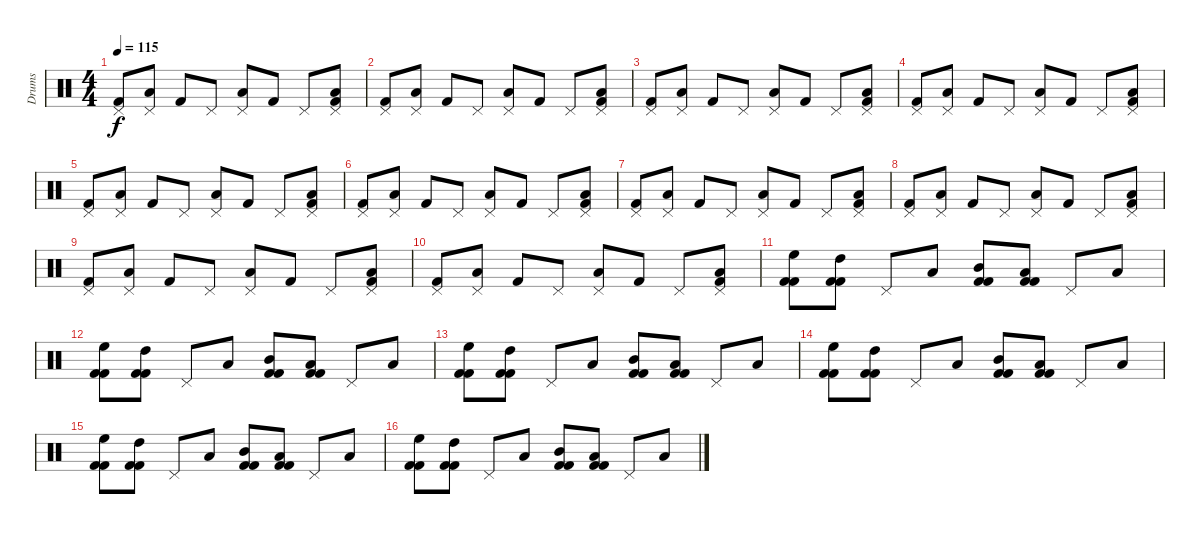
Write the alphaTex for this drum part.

\track ("Drums" "Drums") {instrument percussion}
\staff {score}
\articulation defaults
\ts (4 4)
\tempo 115
\clef neutral
\ks c
("Pedal Hi-Hat (hit)" "Kick (hit) 2").8{dy f} ("Pedal Hi-Hat (hit)" "Low Floor Tom (hit)").8 "Kick (hit) 2".8 "Pedal Hi-Hat (hit)".8 ("Pedal Hi-Hat (hit)" "Low Floor Tom (hit)").8 "Kick (hit) 2".8 "Pedal Hi-Hat (hit)".8 ("Pedal Hi-Hat (hit)" "Kick (hit) 2" "Low Floor Tom (hit)").8 |
("Pedal Hi-Hat (hit)" "Kick (hit) 2").8 ("Pedal Hi-Hat (hit)" "Low Floor Tom (hit)").8 "Kick (hit) 2".8 "Pedal Hi-Hat (hit)".8 ("Pedal Hi-Hat (hit)" "Low Floor Tom (hit)").8 "Kick (hit) 2".8 "Pedal Hi-Hat (hit)".8 ("Pedal Hi-Hat (hit)" "Kick (hit) 2" "Low Floor Tom (hit)").8 |
("Pedal Hi-Hat (hit)" "Kick (hit) 2").8 ("Pedal Hi-Hat (hit)" "Low Floor Tom (hit)").8 "Kick (hit) 2".8 "Pedal Hi-Hat (hit)".8 ("Pedal Hi-Hat (hit)" "Low Floor Tom (hit)").8 "Kick (hit) 2".8 "Pedal Hi-Hat (hit)".8 ("Pedal Hi-Hat (hit)" "Kick (hit) 2" "Low Floor Tom (hit)").8 |
("Pedal Hi-Hat (hit)" "Kick (hit) 2").8 ("Pedal Hi-Hat (hit)" "Low Floor Tom (hit)").8 "Kick (hit) 2".8 "Pedal Hi-Hat (hit)".8 ("Pedal Hi-Hat (hit)" "Low Floor Tom (hit)").8 "Kick (hit) 2".8 "Pedal Hi-Hat (hit)".8 ("Pedal Hi-Hat (hit)" "Kick (hit) 2" "Low Floor Tom (hit)").8 |
("Pedal Hi-Hat (hit)" "Kick (hit) 2").8 ("Pedal Hi-Hat (hit)" "Low Floor Tom (hit)").8 "Kick (hit) 2".8 "Pedal Hi-Hat (hit)".8 ("Pedal Hi-Hat (hit)" "Low Floor Tom (hit)").8 "Kick (hit) 2".8 "Pedal Hi-Hat (hit)".8 ("Pedal Hi-Hat (hit)" "Kick (hit) 2" "Low Floor Tom (hit)").8 |
("Pedal Hi-Hat (hit)" "Kick (hit) 2").8 ("Pedal Hi-Hat (hit)" "Low Floor Tom (hit)").8 "Kick (hit) 2".8 "Pedal Hi-Hat (hit)".8 ("Pedal Hi-Hat (hit)" "Low Floor Tom (hit)").8 "Kick (hit) 2".8 "Pedal Hi-Hat (hit)".8 ("Pedal Hi-Hat (hit)" "Kick (hit) 2" "Low Floor Tom (hit)").8 |
("Pedal Hi-Hat (hit)" "Kick (hit) 2").8 ("Pedal Hi-Hat (hit)" "Low Floor Tom (hit)").8 "Kick (hit) 2".8 "Pedal Hi-Hat (hit)".8 ("Pedal Hi-Hat (hit)" "Low Floor Tom (hit)").8 "Kick (hit) 2".8 "Pedal Hi-Hat (hit)".8 ("Pedal Hi-Hat (hit)" "Kick (hit) 2" "Low Floor Tom (hit)").8 |
("Pedal Hi-Hat (hit)" "Kick (hit) 2").8 ("Pedal Hi-Hat (hit)" "Low Floor Tom (hit)").8 "Kick (hit) 2".8 "Pedal Hi-Hat (hit)".8 ("Pedal Hi-Hat (hit)" "Low Floor Tom (hit)").8 "Kick (hit) 2".8 "Pedal Hi-Hat (hit)".8 ("Pedal Hi-Hat (hit)" "Kick (hit) 2" "Low Floor Tom (hit)").8 |
("Pedal Hi-Hat (hit)" "Kick (hit) 2").8 ("Pedal Hi-Hat (hit)" "Low Floor Tom (hit)").8 "Kick (hit) 2".8 "Pedal Hi-Hat (hit)".8 ("Pedal Hi-Hat (hit)" "Low Floor Tom (hit)").8 "Kick (hit) 2".8 "Pedal Hi-Hat (hit)".8 ("Pedal Hi-Hat (hit)" "Kick (hit) 2" "Low Floor Tom (hit)").8 |
("Pedal Hi-Hat (hit)" "Kick (hit) 2").8 ("Pedal Hi-Hat (hit)" "Low Floor Tom (hit)").8 "Kick (hit) 2".8 "Pedal Hi-Hat (hit)".8 ("Pedal Hi-Hat (hit)" "Low Floor Tom (hit)").8 "Kick (hit) 2".8 "Pedal Hi-Hat (hit)".8 ("Pedal Hi-Hat (hit)" "Kick (hit) 2" "Low Floor Tom (hit)").8 |
("High Floor Tom (hit)" "Kick (hit) 2" "Kick (hit) 2").8 ("High Tom (hit)" "Kick (hit) 2" "Kick (hit) 2").8 "Pedal Hi-Hat (hit)".8 "Low Tom (hit)".8 ("Mid Tom (hit)" "Kick (hit) 2" "Kick (hit) 2").8 ("Low Tom (hit)" "Kick (hit) 2" "Kick (hit) 2").8 "Pedal Hi-Hat (hit)".8 "Low Tom (hit)".8 |
("High Floor Tom (hit)" "Kick (hit) 2" "Kick (hit) 2").8 ("High Tom (hit)" "Kick (hit) 2" "Kick (hit) 2").8 "Pedal Hi-Hat (hit)".8 "Low Tom (hit)".8 ("Mid Tom (hit)" "Kick (hit) 2" "Kick (hit) 2").8 ("Low Tom (hit)" "Kick (hit) 2" "Kick (hit) 2").8 "Pedal Hi-Hat (hit)".8 "Low Tom (hit)".8 |
("High Floor Tom (hit)" "Kick (hit) 2" "Kick (hit) 2").8 ("High Tom (hit)" "Kick (hit) 2" "Kick (hit) 2").8 "Pedal Hi-Hat (hit)".8 "Low Tom (hit)".8 ("Mid Tom (hit)" "Kick (hit) 2" "Kick (hit) 2").8 ("Low Tom (hit)" "Kick (hit) 2" "Kick (hit) 2").8 "Pedal Hi-Hat (hit)".8 "Low Tom (hit)".8 |
("High Floor Tom (hit)" "Kick (hit) 2" "Kick (hit) 2").8 ("High Tom (hit)" "Kick (hit) 2" "Kick (hit) 2").8 "Pedal Hi-Hat (hit)".8 "Low Tom (hit)".8 ("Mid Tom (hit)" "Kick (hit) 2" "Kick (hit) 2").8 ("Low Tom (hit)" "Kick (hit) 2" "Kick (hit) 2").8 "Pedal Hi-Hat (hit)".8 "Low Tom (hit)".8 |
("High Floor Tom (hit)" "Kick (hit) 2" "Kick (hit) 2").8 ("High Tom (hit)" "Kick (hit) 2" "Kick (hit) 2").8 "Pedal Hi-Hat (hit)".8 "Low Tom (hit)".8 ("Mid Tom (hit)" "Kick (hit) 2" "Kick (hit) 2").8 ("Low Tom (hit)" "Kick (hit) 2" "Kick (hit) 2").8 "Pedal Hi-Hat (hit)".8 "Low Tom (hit)".8 |
("High Floor Tom (hit)" "Kick (hit) 2" "Kick (hit) 2").8 ("High Tom (hit)" "Kick (hit) 2" "Kick (hit) 2").8 "Pedal Hi-Hat (hit)".8 "Low Tom (hit)".8 ("Mid Tom (hit)" "Kick (hit) 2" "Kick (hit) 2").8 ("Low Tom (hit)" "Kick (hit) 2" "Kick (hit) 2").8 "Pedal Hi-Hat (hit)".8 "Low Tom (hit)".8
